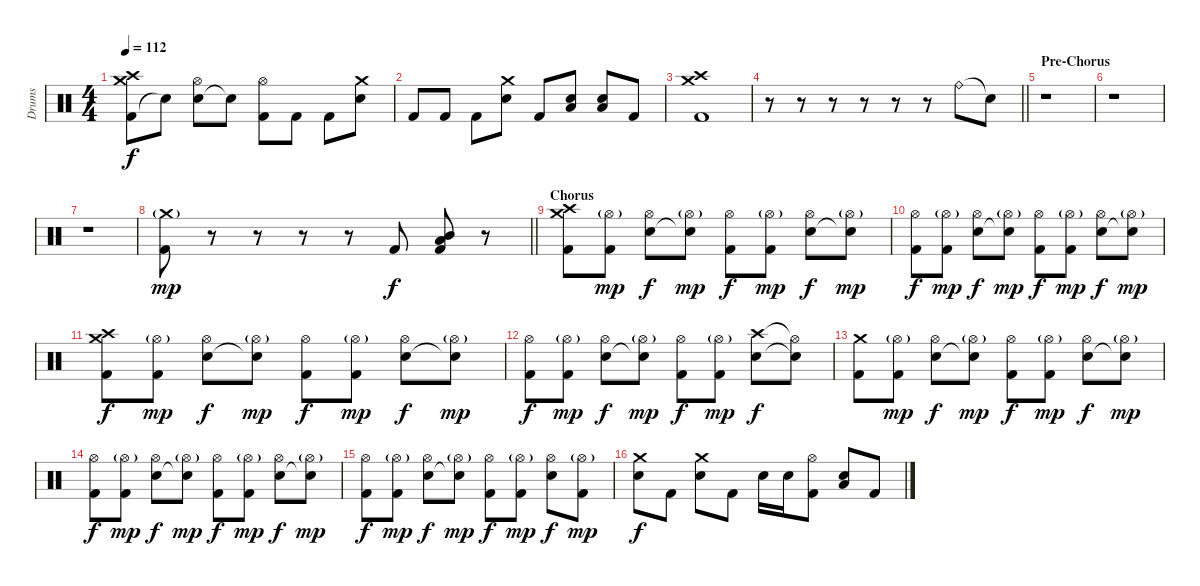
\track ("Drums" "Drums") {instrument percussion}
\staff {score}
\articulation defaults
\ts (4 4)
\tempo 112
\clef neutral
\ks c
("Kick (hit) 2" "Crash medium (hit)" "Crash high (hit)").8{dy f} "Snare (hit)"{t}.8 ("Electric Snare (hit)" "Hi-Hat (open)").8 "Snare (hit)"{t}.8 ("Kick (hit) 2" "Hi-Hat (open)").8 "Kick (hit) 2".8 "Kick (hit) 2".8 ("Electric Snare (hit)" "Crash medium (hit)").8 |
"Kick (hit) 2".8 "Kick (hit) 2".8 "Kick (hit) 2".8 ("Electric Snare (hit)" "Crash medium (hit)").8 "Kick (hit) 2".8 ("Electric Snare (hit)" "Low Floor Tom (hit)").8 ("Electric Snare (hit)" "Low Floor Tom (hit)").8 "Kick (hit) 2".8 |
("Kick (hit) 2" "Crash medium (hit)" "Crash high (hit)").1 |
\barLineRight lightlight
r.8 r.8 r.8 r.8 r.8 r.8 "Ride (bell)".8 "Snare (hit)"{t}.8 |
\section ("" "Pre-Chorus")
r.1 |
r.1 |
r.1 |
\barLineRight lightlight
("Kick (hit) 2" "Crash medium (hit)"{g}).8{dy mp} r.8 r.8 r.8 r.8 "Kick (hit) 2".8{dy f} ("Mid Tom (hit)" "Low Floor Tom (hit)" "Kick (hit) 2").8 r.8 |
\section ("" "Chorus")
("Kick (hit) 2" "Crash medium (hit)" "Crash high (hit)").8 ("Kick (hit) 2" "Hi-Hat (open)"{g}).8{dy mp} ("Electric Snare (hit)" "Hi-Hat (open)").8{dy f} ("Snare (hit)"{t} "Hi-Hat (open)"{g}).8{dy mp} ("Kick (hit) 2" "Hi-Hat (open)").8{dy f} ("Kick (hit) 2" "Hi-Hat (open)"{g}).8{dy mp} ("Electric Snare (hit)" "Hi-Hat (open)").8{dy f} ("Snare (hit)"{t} "Hi-Hat (open)"{g}).8{dy mp} |
("Kick (hit) 2" "Hi-Hat (open)").8{dy f} ("Kick (hit) 2" "Hi-Hat (open)"{g}).8{dy mp} ("Electric Snare (hit)" "Hi-Hat (open)").8{dy f} ("Snare (hit)"{t} "Hi-Hat (open)"{g}).8{dy mp} ("Kick (hit) 2" "Hi-Hat (open)").8{dy f} ("Kick (hit) 2" "Hi-Hat (open)"{g}).8{dy mp} ("Electric Snare (hit)" "Hi-Hat (open)").8{dy f} ("Snare (hit)"{t} "Hi-Hat (open)"{g}).8{dy mp} |
("Kick (hit) 2" "Crash medium (hit)" "Crash high (hit)").8{dy f} ("Kick (hit) 2" "Hi-Hat (open)"{g}).8{dy mp} ("Electric Snare (hit)" "Hi-Hat (open)").8{dy f} ("Snare (hit)"{t} "Hi-Hat (open)"{g}).8{dy mp} ("Kick (hit) 2" "Hi-Hat (open)").8{dy f} ("Kick (hit) 2" "Hi-Hat (open)"{g}).8{dy mp} ("Electric Snare (hit)" "Hi-Hat (open)").8{dy f} ("Snare (hit)"{t} "Hi-Hat (open)"{g}).8{dy mp} |
("Kick (hit) 2" "Hi-Hat (open)").8{dy f} ("Kick (hit) 2" "Hi-Hat (open)"{g}).8{dy mp} ("Electric Snare (hit)" "Hi-Hat (open)").8{dy f} ("Snare (hit)"{t} "Hi-Hat (open)"{g}).8{dy mp} ("Kick (hit) 2" "Hi-Hat (open)").8{dy f} ("Kick (hit) 2" "Hi-Hat (open)"{g}).8{dy mp} ("Electric Snare (hit)" "Crash high (hit)").8{dy f} ("Snare (hit)"{t} "Hi-Hat (open)"{t}).8 |
("Kick (hit) 2" "Crash medium (hit)").8 ("Kick (hit) 2" "Hi-Hat (open)"{g}).8{dy mp} ("Electric Snare (hit)" "Hi-Hat (open)").8{dy f} ("Snare (hit)"{t} "Hi-Hat (open)"{g}).8{dy mp} ("Kick (hit) 2" "Hi-Hat (open)").8{dy f} ("Kick (hit) 2" "Hi-Hat (open)"{g}).8{dy mp} ("Electric Snare (hit)" "Hi-Hat (open)").8{dy f} ("Snare (hit)"{t} "Hi-Hat (open)"{g}).8{dy mp} |
("Kick (hit) 2" "Hi-Hat (open)").8{dy f} ("Kick (hit) 2" "Hi-Hat (open)"{g}).8{dy mp} ("Electric Snare (hit)" "Hi-Hat (open)").8{dy f} ("Snare (hit)"{t} "Hi-Hat (open)"{g}).8{dy mp} ("Kick (hit) 2" "Hi-Hat (open)").8{dy f} ("Kick (hit) 2" "Hi-Hat (open)"{g}).8{dy mp} ("Electric Snare (hit)" "Hi-Hat (open)").8{dy f} ("Snare (hit)"{t} "Hi-Hat (open)"{g}).8{dy mp} |
("Kick (hit) 2" "Hi-Hat (open)").8{dy f} ("Kick (hit) 2" "Hi-Hat (open)"{g}).8{dy mp} ("Electric Snare (hit)" "Hi-Hat (open)").8{dy f} ("Snare (hit)"{t} "Hi-Hat (open)"{g}).8{dy mp} ("Kick (hit) 2" "Hi-Hat (open)").8{dy f} ("Kick (hit) 2" "Hi-Hat (open)"{g}).8{dy mp} ("Electric Snare (hit)" "Hi-Hat (open)").8{dy f} ("Kick (hit) 2" "Hi-Hat (open)"{g}).8{dy mp} |
("Electric Snare (hit)" "Crash medium (hit)").8{dy f} "Kick (hit) 2".8 ("Electric Snare (hit)" "Crash medium (hit)").8 "Kick (hit) 2".8 "Electric Snare (hit)".16 "Electric Snare (hit)".16 ("Kick (hit) 2" "Hi-Hat (open)").8 ("Electric Snare (hit)" "Low Floor Tom (hit)").8 "Kick (hit) 2".8
